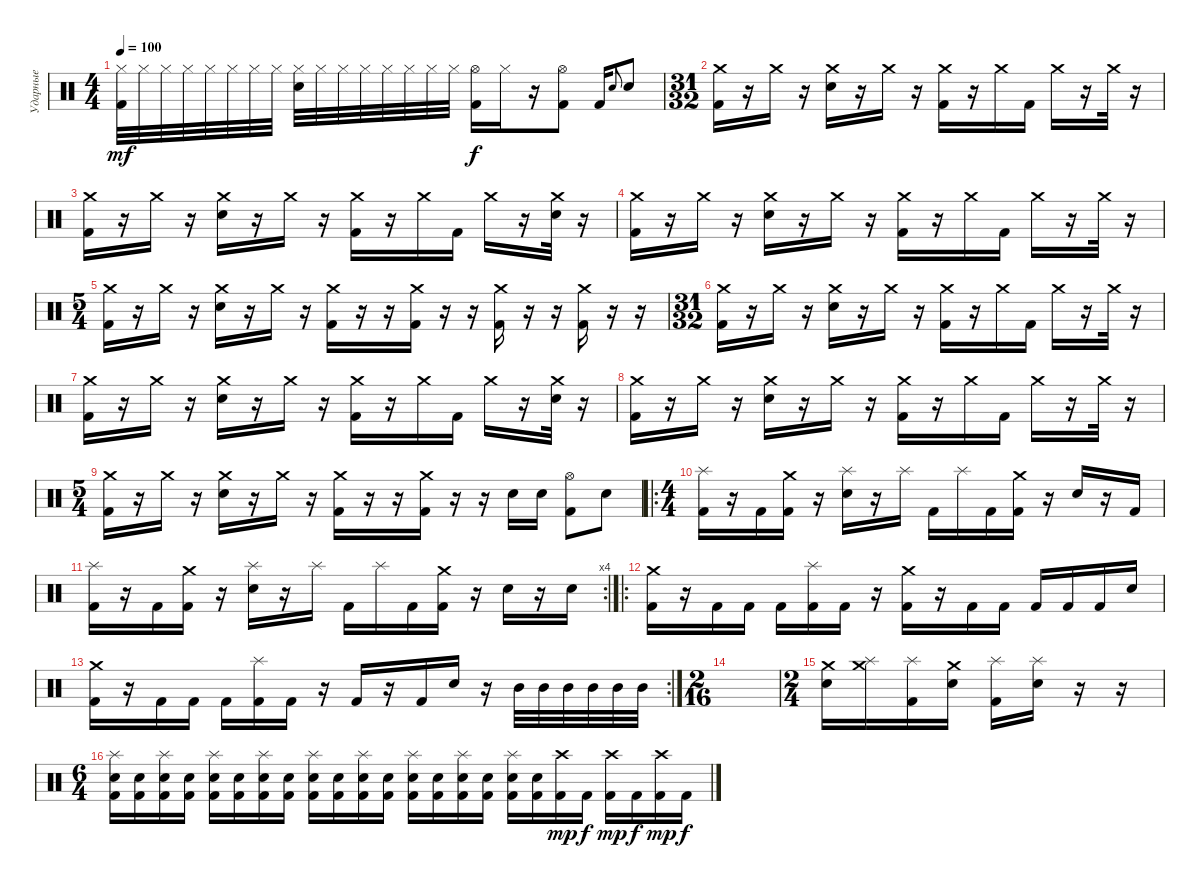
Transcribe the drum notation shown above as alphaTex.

\track ("Ударные" "Ударные") {instrument percussion}
\staff {score}
\articulation defaults
\ts (4 4)
\tempo 100
\clef neutral
\ks c
("Hi-Hat (closed)" "Kick (hit) 2").32{dy mf} "Hi-Hat (closed)".32 "Hi-Hat (closed)".32 "Hi-Hat (closed)".32 "Hi-Hat (closed)".32 "Hi-Hat (closed)".32 "Hi-Hat (closed)".32 "Hi-Hat (closed)".32 ("Hi-Hat (closed)" "Electric Snare (hit)").32 "Hi-Hat (closed)".32 "Hi-Hat (closed)".32 "Hi-Hat (closed)".32 "Hi-Hat (closed)".32 "Hi-Hat (closed)".32 "Hi-Hat (closed)".32 "Hi-Hat (closed)".32 ("Kick (hit) 2" "Hi-Hat (open)").16{dy f} "Hi-Hat (closed)".16 r.16 ("Kick (hit) 2" "Hi-Hat (open)").8 "Kick (hit) 2".16 "Electric Snare (hit)".8{gr onbeat} "Electric Snare (hit)".8 |
\ts (31 32)
("Kick (hit) 2" "Crash medium (hit)").16 r.16 "Crash medium (hit)".16 r.16 ("Electric Snare (hit)" "Crash medium (hit)").16 r.16 "Crash medium (hit)".16 r.16 ("Kick (hit) 2" "Crash medium (hit)").16 r.16 "Crash medium (hit)".16 "Kick (hit) 2".16 "Crash medium (hit)".16 r.16 "Crash medium (hit)".32 r.16 |
("Kick (hit) 2" "Crash medium (hit)").16 r.16 "Crash medium (hit)".16 r.16 ("Electric Snare (hit)" "Crash medium (hit)").16 r.16 "Crash medium (hit)".16 r.16 ("Kick (hit) 2" "Crash medium (hit)").16 r.16 "Crash medium (hit)".16 "Kick (hit) 2".16 "Crash medium (hit)".16 r.16 ("Electric Snare (hit)" "Crash medium (hit)").32 r.16 |
("Kick (hit) 2" "Crash medium (hit)").16 r.16 "Crash medium (hit)".16 r.16 ("Electric Snare (hit)" "Crash medium (hit)").16 r.16 "Crash medium (hit)".16 r.16 ("Kick (hit) 2" "Crash medium (hit)").16 r.16 "Crash medium (hit)".16 "Kick (hit) 2".16 "Crash medium (hit)".16 r.16 "Crash medium (hit)".32 r.16 |
\ts (5 4)
("Kick (hit) 2" "Crash medium (hit)").16 r.16 "Crash medium (hit)".16 r.16 ("Electric Snare (hit)" "Crash medium (hit)").16 r.16 "Crash medium (hit)".16 r.16 ("Kick (hit) 2" "Crash medium (hit)").16 r.16 r.16 ("Kick (hit) 2" "Crash medium (hit)").16 r.16 r.16 ("Kick (hit) 2" "Crash medium (hit)").16 r.16 r.16 ("Kick (hit) 2" "Crash medium (hit)").16 r.16 r.16 |
\ts (31 32)
("Kick (hit) 2" "Crash medium (hit)").16 r.16 "Crash medium (hit)".16 r.16 ("Electric Snare (hit)" "Crash medium (hit)").16 r.16 "Crash medium (hit)".16 r.16 ("Kick (hit) 2" "Crash medium (hit)").16 r.16 "Crash medium (hit)".16 "Kick (hit) 2".16 "Crash medium (hit)".16 r.16 "Crash medium (hit)".32 r.16 |
("Kick (hit) 2" "Crash medium (hit)").16 r.16 "Crash medium (hit)".16 r.16 ("Electric Snare (hit)" "Crash medium (hit)").16 r.16 "Crash medium (hit)".16 r.16 ("Kick (hit) 2" "Crash medium (hit)").16 r.16 "Crash medium (hit)".16 "Kick (hit) 2".16 "Crash medium (hit)".16 r.16 ("Electric Snare (hit)" "Crash medium (hit)").32 r.16 |
("Kick (hit) 2" "Crash medium (hit)").16 r.16 "Crash medium (hit)".16 r.16 ("Electric Snare (hit)" "Crash medium (hit)").16 r.16 "Crash medium (hit)".16 r.16 ("Kick (hit) 2" "Crash medium (hit)").16 r.16 "Crash medium (hit)".16 "Kick (hit) 2".16 "Crash medium (hit)".16 r.16 "Crash medium (hit)".32 r.16 |
\ts (5 4)
("Kick (hit) 2" "Crash medium (hit)").16 r.16 "Crash medium (hit)".16 r.16 ("Electric Snare (hit)" "Crash medium (hit)").16 r.16 "Crash medium (hit)".16 r.16 ("Kick (hit) 2" "Crash medium (hit)").16 r.16 r.16 ("Kick (hit) 2" "Crash medium (hit)").16 r.16 r.16 "Electric Snare (hit)".16 "Electric Snare (hit)".16 ("Hi-Hat (open)" "Kick (hit) 2").8 "Electric Snare (hit)".8 |
\ro
\ts (4 4)
("Kick (hit) 2" "Splash (hit)").16 r.16 "Kick (hit) 2".16 ("Kick (hit) 2" "Crash medium (hit)").16 r.16 ("Electric Snare (hit)" "Splash (hit)").16 r.16 "Splash (hit)".16 "Kick (hit) 2".16 "Splash (hit)".16 "Kick (hit) 2".16 ("Kick (hit) 2" "Crash medium (hit)").16 r.16 "Electric Snare (hit)".16 r.16 "Kick (hit) 2".16 |
\rc 4
("Kick (hit) 2" "Splash (hit)").16 r.16 "Kick (hit) 2".16 ("Kick (hit) 2" "Crash medium (hit)").16 r.16 ("Electric Snare (hit)" "Splash (hit)").16 r.16 "Splash (hit)".16 "Kick (hit) 2".16 "Splash (hit)".16 "Kick (hit) 2".16 ("Kick (hit) 2" "Crash medium (hit)").16 r.16 "Electric Snare (hit)".16 r.16 "Electric Snare (hit)".16 |
\ro
("Kick (hit) 2" "Crash medium (hit)").16 r.16 "Kick (hit) 2".16 "Kick (hit) 2".16 "Kick (hit) 2".16 ("Kick (hit) 2" "Splash (hit)").16 "Kick (hit) 2".16 r.16 ("Kick (hit) 2" "Crash medium (hit)").16 r.16 "Kick (hit) 2".16 "Kick (hit) 2".16 "Kick (hit) 2".16 "Kick (hit) 2".16 "Kick (hit) 2".16 "Electric Snare (hit)".16 |
\rc 2
("Kick (hit) 2" "Crash medium (hit)").16 r.16 "Kick (hit) 2".16 "Kick (hit) 2".16 "Kick (hit) 2".16 ("Kick (hit) 2" "Splash (hit)").16 "Kick (hit) 2".16 r.16 "Kick (hit) 2".16 r.16 "Kick (hit) 2".16 "Electric Snare (hit)".16 r.16 "Mid Tom (hit)".32 "Mid Tom (hit)".32 "Mid Tom (hit)".32 "Mid Tom (hit)".32 "Mid Tom (hit)".32 "Mid Tom (hit)".32 |
\ts (2 16)
|
\ts (2 4)
("Electric Snare (hit)" "Crash medium (hit)").16 ("Crash medium (hit)" "Splash (hit)").16 ("Kick (hit) 2" "Splash (hit)").16 ("Electric Snare (hit)" "Crash medium (hit)").16 ("Kick (hit) 2" "Splash (hit)").16 ("Electric Snare (hit)" "Splash (hit)").16 r.16 r.16 |
\ts (6 4)
("Kick (hit) 2" "Splash (hit)" "Electric Snare (hit)").16 ("Kick (hit) 2" "Electric Snare (hit)").16 ("Kick (hit) 2" "Splash (hit)" "Electric Snare (hit)").16 ("Kick (hit) 2" "Electric Snare (hit)").16 ("Kick (hit) 2" "Splash (hit)" "Electric Snare (hit)").16 ("Kick (hit) 2" "Electric Snare (hit)").16 ("Splash (hit)" "Kick (hit) 2" "Electric Snare (hit)").16 ("Kick (hit) 2" "Electric Snare (hit)").16 ("Kick (hit) 2" "Splash (hit)" "Electric Snare (hit)").16 ("Kick (hit) 2" "Electric Snare (hit)").16 ("Kick (hit) 2" "Splash (hit)" "Electric Snare (hit)").16 ("Kick (hit) 2" "Electric Snare (hit)").16 ("Kick (hit) 2" "Splash (hit)" "Electric Snare (hit)").16 ("Kick (hit) 2" "Electric Snare (hit)").16 ("Kick (hit) 2" "Splash (hit)" "Electric Snare (hit)").16 ("Kick (hit) 2" "Electric Snare (hit)").16 ("Kick (hit) 2" "Splash (hit)" "Electric Snare (hit)").16 ("Kick (hit) 2" "Electric Snare (hit)").16 ("Kick (hit) 2" "Crash high (hit)").16{dy mp} "Kick (hit) 2".16{dy f} ("Kick (hit) 2" "Crash high (hit)").16{dy mp} "Kick (hit) 2".16{dy f} ("Kick (hit) 2" "Crash high (hit)").16{dy mp} "Kick (hit) 2".16{dy f}
